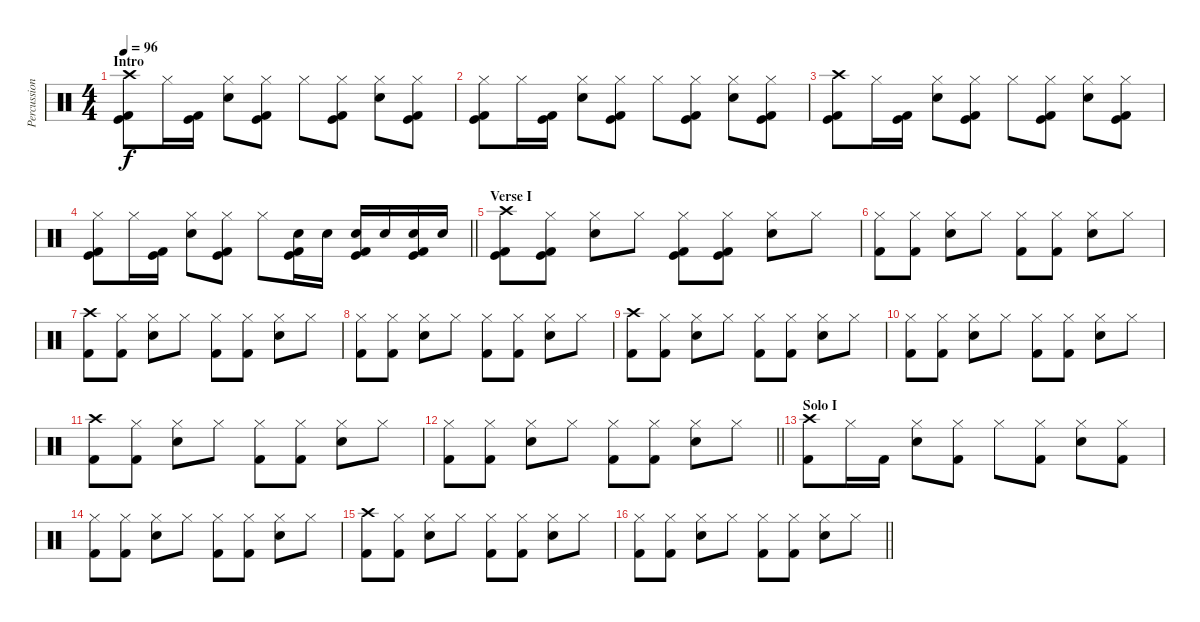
\track ("Percussions" "Percussion") {instrument percussion}
\staff {score}
\articulation defaults
\ts (4 4)
\section ("" "Intro")
\tempo 96
\clef neutral
\ks c
("Crash high (hit)" "Kick (hit)" "Kick (hit) 2").8{dy f} "Hi-Hat (closed)".16 ("Kick (hit)" "Kick (hit) 2").16 ("Hi-Hat (closed)" "Snare (hit) 2").8 ("Hi-Hat (closed)" "Kick (hit)" "Kick (hit) 2").8 "Hi-Hat (closed)".8 ("Hi-Hat (closed)" "Kick (hit)" "Kick (hit) 2").8 ("Hi-Hat (closed)" "Snare (hit) 2").8 ("Hi-Hat (closed)" "Kick (hit)" "Kick (hit) 2").8 |
("Hi-Hat (closed)" "Kick (hit)" "Kick (hit) 2").8 "Hi-Hat (closed)".16 ("Kick (hit)" "Kick (hit) 2").16 ("Hi-Hat (closed)" "Snare (hit) 2").8 ("Hi-Hat (closed)" "Kick (hit)" "Kick (hit) 2").8 "Hi-Hat (closed)".8 ("Hi-Hat (closed)" "Kick (hit)" "Kick (hit) 2").8 ("Hi-Hat (closed)" "Snare (hit) 2").8 ("Hi-Hat (closed)" "Kick (hit)" "Kick (hit) 2").8 |
("Crash high (hit)" "Kick (hit)" "Kick (hit) 2").8 "Hi-Hat (closed)".16 ("Kick (hit)" "Kick (hit) 2").16 ("Hi-Hat (closed)" "Snare (hit) 2").8 ("Hi-Hat (closed)" "Kick (hit)" "Kick (hit) 2").8 "Hi-Hat (closed)".8 ("Hi-Hat (closed)" "Kick (hit)" "Kick (hit) 2").8 ("Hi-Hat (closed)" "Snare (hit) 2").8 ("Hi-Hat (closed)" "Kick (hit)" "Kick (hit) 2").8 |
\barLineRight lightlight
("Hi-Hat (closed)" "Kick (hit)" "Kick (hit) 2").8 "Hi-Hat (closed)".16 ("Kick (hit)" "Kick (hit) 2").16 ("Hi-Hat (closed)" "Snare (hit) 2").8 ("Hi-Hat (closed)" "Kick (hit)" "Kick (hit) 2").8 "Hi-Hat (closed)".8 ("Snare (hit) 2" "Kick (hit)" "Kick (hit) 2").16 "Snare (hit) 2".16 ("Snare (hit) 2" "Kick (hit)" "Kick (hit) 2").16 "Snare (hit) 2".16 ("Snare (hit) 2" "Kick (hit)" "Kick (hit) 2").16 "Snare (hit) 2".16 |
\section ("" "Verse I")
("Crash high (hit)" "Kick (hit)" "Kick (hit) 2").8 ("Hi-Hat (closed)" "Kick (hit)" "Kick (hit) 2").8 ("Hi-Hat (closed)" "Snare (hit) 2").8 "Hi-Hat (closed)".8 ("Hi-Hat (closed)" "Kick (hit)" "Kick (hit) 2").8 ("Hi-Hat (closed)" "Kick (hit)" "Kick (hit) 2").8 ("Hi-Hat (closed)" "Snare (hit) 2").8 "Hi-Hat (closed)".8 |
("Hi-Hat (closed)" "Kick (hit) 2").8 ("Hi-Hat (closed)" "Kick (hit) 2").8 ("Hi-Hat (closed)" "Snare (hit) 2").8 "Hi-Hat (closed)".8 ("Hi-Hat (closed)" "Kick (hit) 2").8 ("Hi-Hat (closed)" "Kick (hit) 2").8 ("Hi-Hat (closed)" "Snare (hit) 2").8 "Hi-Hat (closed)".8 |
("Crash high (hit)" "Kick (hit) 2").8 ("Hi-Hat (closed)" "Kick (hit) 2").8 ("Hi-Hat (closed)" "Snare (hit) 2").8 "Hi-Hat (closed)".8 ("Hi-Hat (closed)" "Kick (hit) 2").8 ("Hi-Hat (closed)" "Kick (hit) 2").8 ("Hi-Hat (closed)" "Snare (hit) 2").8 "Hi-Hat (closed)".8 |
("Hi-Hat (closed)" "Kick (hit) 2").8 ("Hi-Hat (closed)" "Kick (hit) 2").8 ("Hi-Hat (closed)" "Snare (hit) 2").8 "Hi-Hat (closed)".8 ("Hi-Hat (closed)" "Kick (hit) 2").8 ("Hi-Hat (closed)" "Kick (hit) 2").8 ("Hi-Hat (closed)" "Snare (hit) 2").8 "Hi-Hat (closed)".8 |
("Crash high (hit)" "Kick (hit) 2").8 ("Hi-Hat (closed)" "Kick (hit) 2").8 ("Hi-Hat (closed)" "Snare (hit) 2").8 "Hi-Hat (closed)".8 ("Hi-Hat (closed)" "Kick (hit) 2").8 ("Hi-Hat (closed)" "Kick (hit) 2").8 ("Hi-Hat (closed)" "Snare (hit) 2").8 "Hi-Hat (closed)".8 |
("Hi-Hat (closed)" "Kick (hit) 2").8 ("Hi-Hat (closed)" "Kick (hit) 2").8 ("Hi-Hat (closed)" "Snare (hit) 2").8 "Hi-Hat (closed)".8 ("Hi-Hat (closed)" "Kick (hit) 2").8 ("Hi-Hat (closed)" "Kick (hit) 2").8 ("Hi-Hat (closed)" "Snare (hit) 2").8 "Hi-Hat (closed)".8 |
("Crash high (hit)" "Kick (hit) 2").8 ("Hi-Hat (closed)" "Kick (hit) 2").8 ("Hi-Hat (closed)" "Snare (hit) 2").8 "Hi-Hat (closed)".8 ("Hi-Hat (closed)" "Kick (hit) 2").8 ("Hi-Hat (closed)" "Kick (hit) 2").8 ("Hi-Hat (closed)" "Snare (hit) 2").8 "Hi-Hat (closed)".8 |
\barLineRight lightlight
("Hi-Hat (closed)" "Kick (hit) 2").8 ("Hi-Hat (closed)" "Kick (hit) 2").8 ("Hi-Hat (closed)" "Snare (hit) 2").8 "Hi-Hat (closed)".8 ("Hi-Hat (closed)" "Kick (hit) 2").8 ("Hi-Hat (closed)" "Kick (hit) 2").8 ("Hi-Hat (closed)" "Snare (hit) 2").8 "Hi-Hat (closed)".8 |
\section ("" "Solo I")
("Crash high (hit)" "Kick (hit) 2").8 "Hi-Hat (closed)".16 "Kick (hit) 2".16 ("Hi-Hat (closed)" "Snare (hit) 2").8 ("Hi-Hat (closed)" "Kick (hit) 2").8 "Hi-Hat (closed)".8 ("Hi-Hat (closed)" "Kick (hit) 2").8 ("Hi-Hat (closed)" "Snare (hit) 2").8 ("Hi-Hat (closed)" "Kick (hit) 2").8 |
("Hi-Hat (closed)" "Kick (hit) 2").8 ("Hi-Hat (closed)" "Kick (hit) 2").8 ("Hi-Hat (closed)" "Snare (hit) 2").8 "Hi-Hat (closed)".8 ("Hi-Hat (closed)" "Kick (hit) 2").8 ("Hi-Hat (closed)" "Kick (hit) 2").8 ("Hi-Hat (closed)" "Snare (hit) 2").8 "Hi-Hat (closed)".8 |
("Crash high (hit)" "Kick (hit) 2").8 ("Hi-Hat (closed)" "Kick (hit) 2").8 ("Hi-Hat (closed)" "Snare (hit) 2").8 "Hi-Hat (closed)".8 ("Hi-Hat (closed)" "Kick (hit) 2").8 ("Hi-Hat (closed)" "Kick (hit) 2").8 ("Hi-Hat (closed)" "Snare (hit) 2").8 "Hi-Hat (closed)".8 |
\barLineRight lightlight
("Hi-Hat (closed)" "Kick (hit) 2").8 ("Hi-Hat (closed)" "Kick (hit) 2").8 ("Hi-Hat (closed)" "Snare (hit) 2").8 "Hi-Hat (closed)".8 ("Hi-Hat (closed)" "Kick (hit) 2").8 ("Hi-Hat (closed)" "Kick (hit) 2").8 ("Hi-Hat (closed)" "Snare (hit) 2").8 "Hi-Hat (closed)".8
